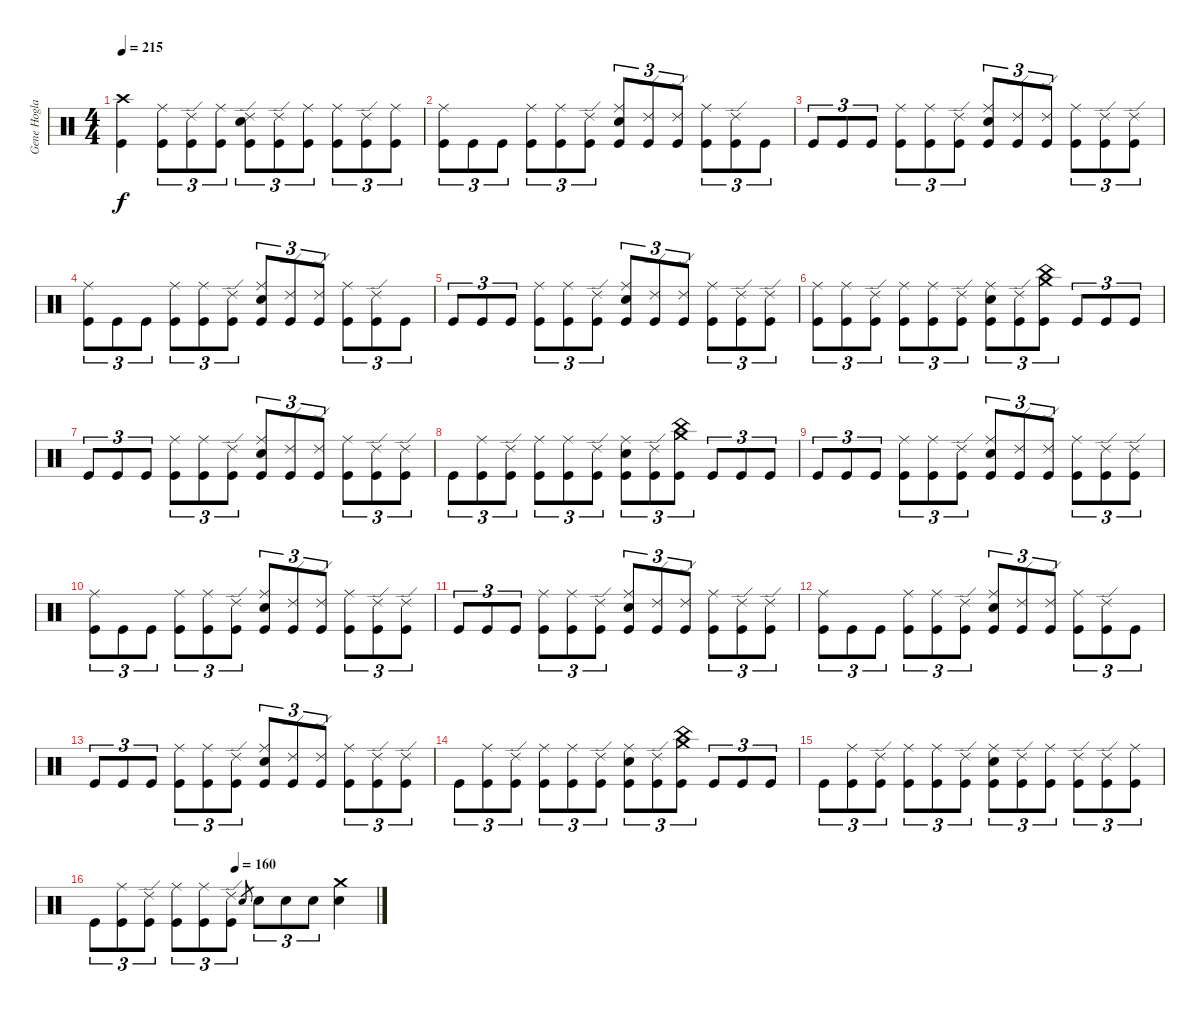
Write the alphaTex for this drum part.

\track ("Gene Hoglan" "Gene Hogla") {instrument percussion}
\staff {score}
\articulation defaults
\ts (4 4)
\tempo 215
\clef neutral
\ks c
("Crash high (hit)" "Kick (hit)").4{dy f} ("Ride (middle)" "Kick (hit)").8{tu (3 2)} ("Ride (edge) 2" "Kick (hit)").8{tu (3 2)} ("Ride (middle)" "Kick (hit)").8{tu (3 2)} ("Ride (edge) 2" "Electric Snare (hit)" "Kick (hit)").8{tu (3 2)} ("Ride (edge) 2" "Kick (hit)").8{tu (3 2)} ("Ride (middle)" "Kick (hit)").8{tu (3 2)} ("Ride (middle)" "Kick (hit)").8{tu (3 2)} ("Ride (edge) 2" "Kick (hit)").8{tu (3 2)} ("Ride (middle)" "Kick (hit)").8{tu (3 2)} |
("Ride (middle)" "Kick (hit)").8{tu (3 2)} "Kick (hit)".8{tu (3 2)} "Kick (hit)".8{tu (3 2)} ("Ride (middle)" "Kick (hit)").8{tu (3 2)} ("Ride (middle)" "Kick (hit)").8{tu (3 2)} ("Ride (edge) 2" "Kick (hit)").8{tu (3 2)} ("Ride (middle)" "Electric Snare (hit)" "Kick (hit)").8{tu (3 2)} ("Ride (edge) 2" "Kick (hit)").8{tu (3 2)} ("Ride (edge) 2" "Kick (hit)").8{tu (3 2)} ("Ride (middle)" "Kick (hit)").8{tu (3 2)} ("Ride (edge) 2" "Kick (hit)").8{tu (3 2)} "Kick (hit)".8{tu (3 2)} |
"Kick (hit)".8{tu (3 2)} "Kick (hit)".8{tu (3 2)} "Kick (hit)".8{tu (3 2)} ("Ride (middle)" "Kick (hit)").8{tu (3 2)} ("Ride (middle)" "Kick (hit)").8{tu (3 2)} ("Ride (edge) 2" "Kick (hit)").8{tu (3 2)} ("Ride (middle)" "Electric Snare (hit)" "Kick (hit)").8{tu (3 2)} ("Ride (edge) 2" "Kick (hit)").8{tu (3 2)} ("Ride (edge) 2" "Kick (hit)").8{tu (3 2)} ("Ride (middle)" "Kick (hit)").8{tu (3 2)} ("Ride (edge) 2" "Kick (hit)").8{tu (3 2)} ("Ride (edge) 2" "Kick (hit)").8{tu (3 2)} |
("Ride (middle)" "Kick (hit)").8{tu (3 2)} "Kick (hit)".8{tu (3 2)} "Kick (hit)".8{tu (3 2)} ("Ride (middle)" "Kick (hit)").8{tu (3 2)} ("Ride (middle)" "Kick (hit)").8{tu (3 2)} ("Ride (edge) 2" "Kick (hit)").8{tu (3 2)} ("Ride (middle)" "Electric Snare (hit)" "Kick (hit)").8{tu (3 2)} ("Ride (edge) 2" "Kick (hit)").8{tu (3 2)} ("Ride (edge) 2" "Kick (hit)").8{tu (3 2)} ("Ride (middle)" "Kick (hit)").8{tu (3 2)} ("Ride (edge) 2" "Kick (hit)").8{tu (3 2)} "Kick (hit)".8{tu (3 2)} |
"Kick (hit)".8{tu (3 2)} "Kick (hit)".8{tu (3 2)} "Kick (hit)".8{tu (3 2)} ("Ride (middle)" "Kick (hit)").8{tu (3 2)} ("Ride (middle)" "Kick (hit)").8{tu (3 2)} ("Ride (edge) 2" "Kick (hit)").8{tu (3 2)} ("Ride (middle)" "Electric Snare (hit)" "Kick (hit)").8{tu (3 2)} ("Ride (edge) 2" "Kick (hit)").8{tu (3 2)} ("Ride (edge) 2" "Kick (hit)").8{tu (3 2)} ("Ride (middle)" "Kick (hit)").8{tu (3 2)} ("Ride (edge) 2" "Kick (hit)").8{tu (3 2)} ("Ride (edge) 2" "Kick (hit)").8{tu (3 2)} |
("Ride (middle)" "Kick (hit)").8{tu (3 2)} ("Ride (middle)" "Kick (hit)").8{tu (3 2)} ("Ride (edge) 2" "Kick (hit)").8{tu (3 2)} ("Ride (middle)" "Kick (hit)").8{tu (3 2)} ("Ride (middle)" "Kick (hit)").8{tu (3 2)} ("Ride (edge) 2" "Kick (hit)").8{tu (3 2)} ("Ride (middle)" "Electric Snare (hit)" "Kick (hit)").8{tu (3 2)} ("Ride (edge) 2" "Kick (hit)").8{tu (3 2)} ("Crash medium (hit)" "China (hit)" "Kick (hit)").8{tu (3 2)} "Kick (hit)".8{tu (3 2)} "Kick (hit)".8{tu (3 2)} "Kick (hit)".8{tu (3 2)} |
"Kick (hit)".8{tu (3 2)} "Kick (hit)".8{tu (3 2)} "Kick (hit)".8{tu (3 2)} ("Ride (middle)" "Kick (hit)").8{tu (3 2)} ("Ride (middle)" "Kick (hit)").8{tu (3 2)} ("Ride (edge) 2" "Kick (hit)").8{tu (3 2)} ("Ride (middle)" "Electric Snare (hit)" "Kick (hit)").8{tu (3 2)} ("Ride (edge) 2" "Kick (hit)").8{tu (3 2)} ("Ride (edge) 2" "Kick (hit)").8{tu (3 2)} ("Ride (middle)" "Kick (hit)").8{tu (3 2)} ("Ride (edge) 2" "Kick (hit)").8{tu (3 2)} ("Ride (edge) 2" "Kick (hit)").8{tu (3 2)} |
"Kick (hit)".8{tu (3 2)} ("Ride (middle)" "Kick (hit)").8{tu (3 2)} ("Ride (edge) 2" "Kick (hit)").8{tu (3 2)} ("Ride (middle)" "Kick (hit)").8{tu (3 2)} ("Ride (middle)" "Kick (hit)").8{tu (3 2)} ("Ride (edge) 2" "Kick (hit)").8{tu (3 2)} ("Ride (middle)" "Electric Snare (hit)" "Kick (hit)").8{tu (3 2)} ("Ride (edge) 2" "Kick (hit)").8{tu (3 2)} ("Crash medium (hit)" "China (hit)" "Kick (hit)").8{tu (3 2)} "Kick (hit)".8{tu (3 2)} "Kick (hit)".8{tu (3 2)} "Kick (hit)".8{tu (3 2)} |
"Kick (hit)".8{tu (3 2)} "Kick (hit)".8{tu (3 2)} "Kick (hit)".8{tu (3 2)} ("Ride (middle)" "Kick (hit)").8{tu (3 2)} ("Ride (middle)" "Kick (hit)").8{tu (3 2)} ("Ride (edge) 2" "Kick (hit)").8{tu (3 2)} ("Ride (middle)" "Electric Snare (hit)" "Kick (hit)").8{tu (3 2)} ("Ride (edge) 2" "Kick (hit)").8{tu (3 2)} ("Ride (edge) 2" "Kick (hit)").8{tu (3 2)} ("Ride (middle)" "Kick (hit)").8{tu (3 2)} ("Ride (edge) 2" "Kick (hit)").8{tu (3 2)} ("Ride (edge) 2" "Kick (hit)").8{tu (3 2)} |
("Ride (middle)" "Kick (hit)").8{tu (3 2)} "Kick (hit)".8{tu (3 2)} "Kick (hit)".8{tu (3 2)} ("Ride (middle)" "Kick (hit)").8{tu (3 2)} ("Ride (middle)" "Kick (hit)").8{tu (3 2)} ("Ride (edge) 2" "Kick (hit)").8{tu (3 2)} ("Ride (middle)" "Electric Snare (hit)" "Kick (hit)").8{tu (3 2)} ("Ride (edge) 2" "Kick (hit)").8{tu (3 2)} ("Ride (edge) 2" "Kick (hit)").8{tu (3 2)} ("Ride (middle)" "Kick (hit)").8{tu (3 2)} ("Ride (edge) 2" "Kick (hit)").8{tu (3 2)} ("Ride (edge) 2" "Kick (hit)").8{tu (3 2)} |
"Kick (hit)".8{tu (3 2)} "Kick (hit)".8{tu (3 2)} "Kick (hit)".8{tu (3 2)} ("Ride (middle)" "Kick (hit)").8{tu (3 2)} ("Ride (middle)" "Kick (hit)").8{tu (3 2)} ("Ride (edge) 2" "Kick (hit)").8{tu (3 2)} ("Ride (middle)" "Electric Snare (hit)" "Kick (hit)").8{tu (3 2)} ("Ride (edge) 2" "Kick (hit)").8{tu (3 2)} ("Ride (edge) 2" "Kick (hit)").8{tu (3 2)} ("Ride (middle)" "Kick (hit)").8{tu (3 2)} ("Ride (edge) 2" "Kick (hit)").8{tu (3 2)} ("Ride (edge) 2" "Kick (hit)").8{tu (3 2)} |
("Ride (middle)" "Kick (hit)").8{tu (3 2)} "Kick (hit)".8{tu (3 2)} "Kick (hit)".8{tu (3 2)} ("Ride (middle)" "Kick (hit)").8{tu (3 2)} ("Ride (middle)" "Kick (hit)").8{tu (3 2)} ("Ride (edge) 2" "Kick (hit)").8{tu (3 2)} ("Ride (middle)" "Electric Snare (hit)" "Kick (hit)").8{tu (3 2)} ("Ride (edge) 2" "Kick (hit)").8{tu (3 2)} ("Ride (edge) 2" "Kick (hit)").8{tu (3 2)} ("Ride (middle)" "Kick (hit)").8{tu (3 2)} ("Ride (edge) 2" "Kick (hit)").8{tu (3 2)} "Kick (hit)".8{tu (3 2)} |
"Kick (hit)".8{tu (3 2)} "Kick (hit)".8{tu (3 2)} "Kick (hit)".8{tu (3 2)} ("Ride (middle)" "Kick (hit)").8{tu (3 2)} ("Ride (middle)" "Kick (hit)").8{tu (3 2)} ("Ride (edge) 2" "Kick (hit)").8{tu (3 2)} ("Ride (middle)" "Electric Snare (hit)" "Kick (hit)").8{tu (3 2)} ("Ride (edge) 2" "Kick (hit)").8{tu (3 2)} ("Ride (edge) 2" "Kick (hit)").8{tu (3 2)} ("Ride (middle)" "Kick (hit)").8{tu (3 2)} ("Ride (edge) 2" "Kick (hit)").8{tu (3 2)} ("Ride (edge) 2" "Kick (hit)").8{tu (3 2)} |
"Kick (hit)".8{tu (3 2)} ("Ride (middle)" "Kick (hit)").8{tu (3 2)} ("Ride (edge) 2" "Kick (hit)").8{tu (3 2)} ("Ride (middle)" "Kick (hit)").8{tu (3 2)} ("Ride (middle)" "Kick (hit)").8{tu (3 2)} ("Ride (edge) 2" "Kick (hit)").8{tu (3 2)} ("Ride (middle)" "Electric Snare (hit)" "Kick (hit)").8{tu (3 2)} ("Ride (edge) 2" "Kick (hit)").8{tu (3 2)} ("Crash medium (hit)" "China (hit)" "Kick (hit)").8{tu (3 2)} "Kick (hit)".8{tu (3 2)} "Kick (hit)".8{tu (3 2)} "Kick (hit)".8{tu (3 2)} |
"Kick (hit)".8{tu (3 2)} ("Ride (middle)" "Kick (hit)").8{tu (3 2)} ("Ride (edge) 2" "Kick (hit)").8{tu (3 2)} ("Ride (middle)" "Kick (hit)").8{tu (3 2)} ("Ride (middle)" "Kick (hit)").8{tu (3 2)} ("Ride (edge) 2" "Kick (hit)").8{tu (3 2)} ("Ride (middle)" "Electric Snare (hit)" "Kick (hit)").8{tu (3 2)} ("Ride (edge) 2" "Kick (hit)").8{tu (3 2)} ("Ride (middle)" "Kick (hit)").8{tu (3 2)} ("Ride (edge) 2" "Kick (hit)").8{tu (3 2)} ("Ride (edge) 2" "Kick (hit)").8{tu (3 2)} ("Ride (middle)" "Kick (hit)").8{tu (3 2)} |
\tempo (160 0.5)
"Kick (hit)".8{tu (3 2)} ("Ride (middle)" "Kick (hit)").8{tu (3 2)} ("Ride (edge) 2" "Kick (hit)").8{tu (3 2)} ("Ride (middle)" "Kick (hit)").8{tu (3 2)} ("Ride (middle)" "Kick (hit)").8{tu (3 2)} ("Ride (edge) 2" "Kick (hit)").8{tu (3 2)} "Electric Snare (hit)".8{gr} "Electric Snare (hit)".8{tu (3 2)} "Electric Snare (hit)".8{tu (3 2)} "Electric Snare (hit)".8{tu (3 2)} ("Crash medium (hit)" "Electric Snare (hit)").4
